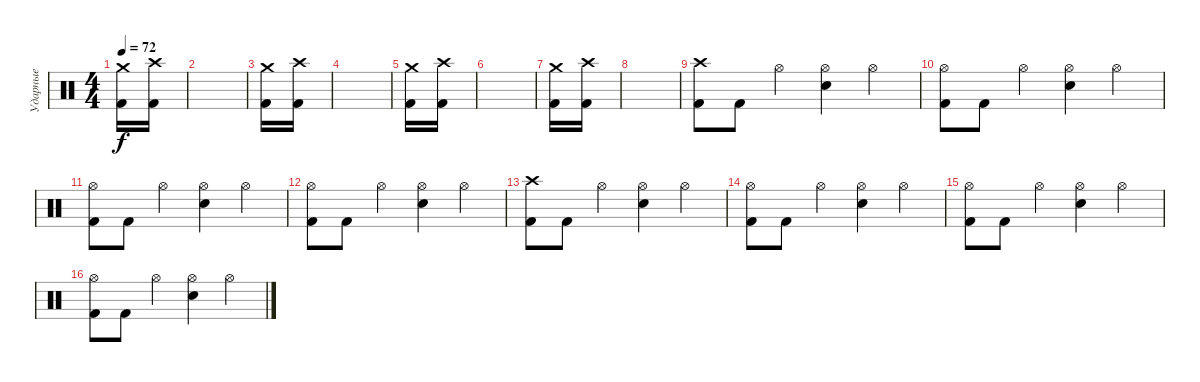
\track ("Ударные" "Ударные") {instrument percussion}
\staff {score}
\articulation defaults
\ts (4 4)
\tempo 72
\clef neutral
\ks c
("Crash medium (hit)" "Kick (hit) 2").16{dy f} ("Crash high (hit)" "Kick (hit) 2").16 |
|
("Crash medium (hit)" "Kick (hit) 2").16 ("Crash high (hit)" "Kick (hit) 2").16 |
|
("Crash medium (hit)" "Kick (hit) 2").16 ("Crash high (hit)" "Kick (hit) 2").16 |
|
("Crash medium (hit)" "Kick (hit) 2").16 ("Crash high (hit)" "Kick (hit) 2").16 |
|
("Crash high (hit)" "Kick (hit) 2").8 "Kick (hit) 2".8 "Hi-Hat (open)".4 ("Hi-Hat (open)" "Snare (hit) 2").4 "Hi-Hat (open)".4 |
("Hi-Hat (open)" "Kick (hit) 2").8 "Kick (hit) 2".8 "Hi-Hat (open)".4 ("Hi-Hat (open)" "Snare (hit) 2").4 "Hi-Hat (open)".4 |
("Hi-Hat (open)" "Kick (hit) 2").8 "Kick (hit) 2".8 "Hi-Hat (open)".4 ("Hi-Hat (open)" "Snare (hit) 2").4 "Hi-Hat (open)".4 |
("Hi-Hat (open)" "Kick (hit) 2").8 "Kick (hit) 2".8 "Hi-Hat (open)".4 ("Hi-Hat (open)" "Snare (hit) 2").4 "Hi-Hat (open)".4 |
("Crash high (hit)" "Kick (hit) 2").8 "Kick (hit) 2".8 "Hi-Hat (open)".4 ("Hi-Hat (open)" "Snare (hit) 2").4 "Hi-Hat (open)".4 |
("Hi-Hat (open)" "Kick (hit) 2").8 "Kick (hit) 2".8 "Hi-Hat (open)".4 ("Hi-Hat (open)" "Snare (hit) 2").4 "Hi-Hat (open)".4 |
("Hi-Hat (open)" "Kick (hit) 2").8 "Kick (hit) 2".8 "Hi-Hat (open)".4 ("Hi-Hat (open)" "Snare (hit) 2").4 "Hi-Hat (open)".4 |
("Hi-Hat (open)" "Kick (hit) 2").8 "Kick (hit) 2".8 "Hi-Hat (open)".4 ("Hi-Hat (open)" "Snare (hit) 2").4 "Hi-Hat (open)".4
